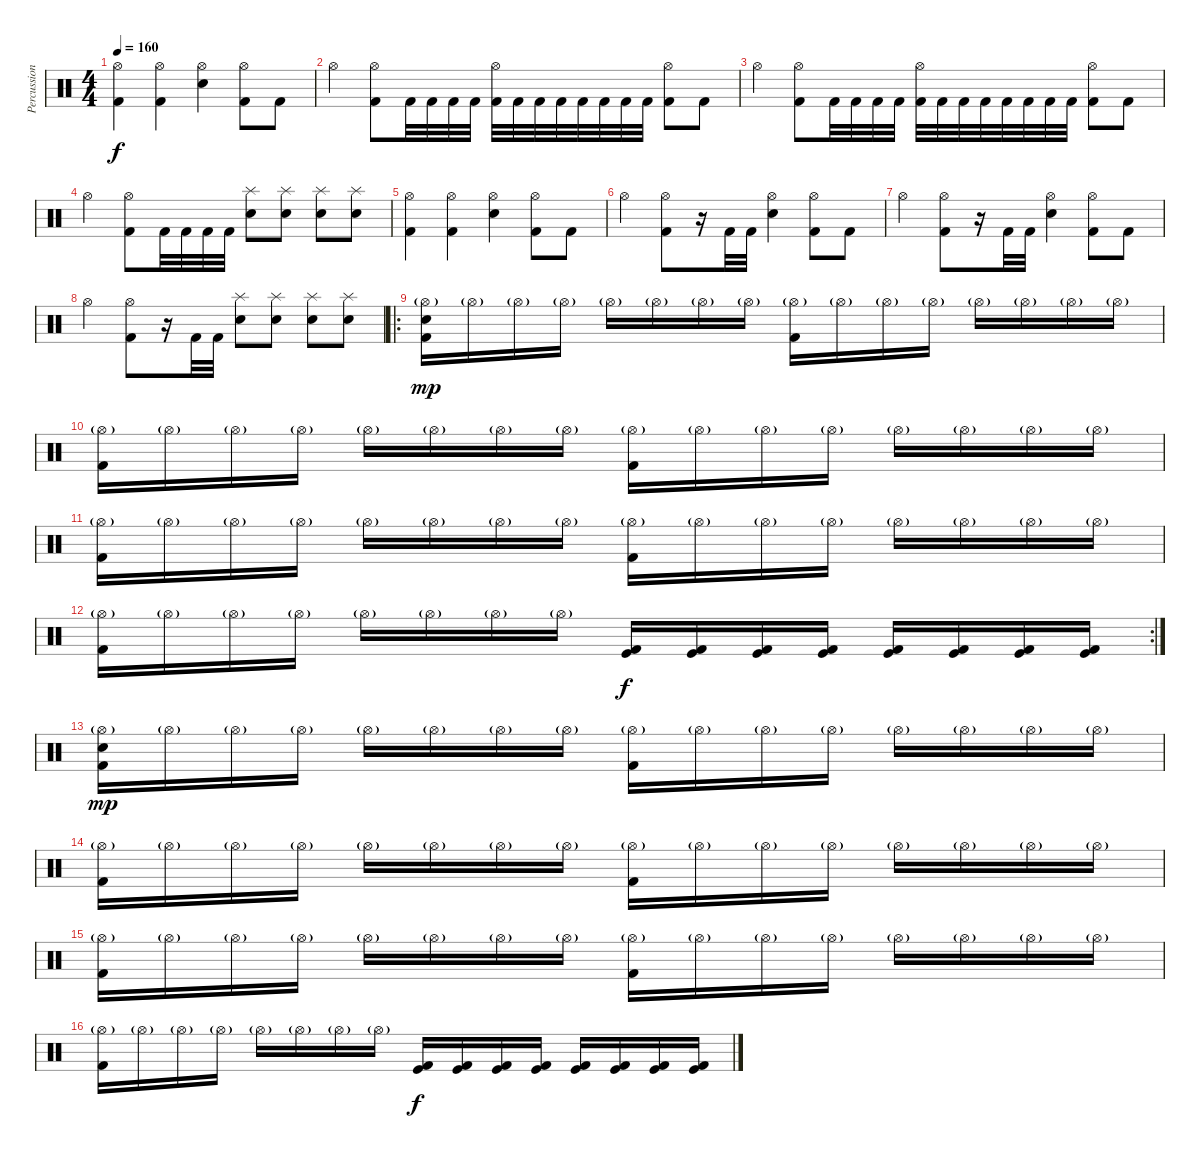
\track ("Percussion" "Percussion") {instrument percussion}
\staff {score}
\articulation defaults
\ts (4 4)
\tempo 160
\clef neutral
\ks c
("Kick (hit) 2" "Hi-Hat (open)").4{dy f} ("Kick (hit) 2" "Hi-Hat (open)").4 ("Electric Snare (hit)" "Hi-Hat (open)").4 ("Kick (hit) 2" "Hi-Hat (open)").8 "Kick (hit) 2".8 |
"Hi-Hat (open)".4 ("Kick (hit) 2" "Hi-Hat (open)").8 "Kick (hit) 2".32 "Kick (hit) 2".32 "Kick (hit) 2".32 "Kick (hit) 2".32 ("Kick (hit) 2" "Hi-Hat (open)").32 "Kick (hit) 2".32 "Kick (hit) 2".32 "Kick (hit) 2".32 "Kick (hit) 2".32 "Kick (hit) 2".32 "Kick (hit) 2".32 "Kick (hit) 2".32 ("Kick (hit) 2" "Hi-Hat (open)").8 "Kick (hit) 2".8 |
"Hi-Hat (open)".4 ("Kick (hit) 2" "Hi-Hat (open)").8 "Kick (hit) 2".32 "Kick (hit) 2".32 "Kick (hit) 2".32 "Kick (hit) 2".32 ("Kick (hit) 2" "Hi-Hat (open)").32 "Kick (hit) 2".32 "Kick (hit) 2".32 "Kick (hit) 2".32 "Kick (hit) 2".32 "Kick (hit) 2".32 "Kick (hit) 2".32 "Kick (hit) 2".32 ("Kick (hit) 2" "Hi-Hat (open)").8 "Kick (hit) 2".8 |
"Hi-Hat (open)".4 ("Kick (hit) 2" "Hi-Hat (open)").8 "Kick (hit) 2".32 "Kick (hit) 2".32 "Kick (hit) 2".32 "Kick (hit) 2".32 ("Electric Snare (hit)" "Splash (hit)").8 ("Electric Snare (hit)" "Splash (hit)").8 ("Electric Snare (hit)" "Splash (hit)").8 ("Electric Snare (hit)" "Splash (hit)").8 |
("Kick (hit) 2" "Hi-Hat (open)").4 ("Kick (hit) 2" "Hi-Hat (open)").4 ("Electric Snare (hit)" "Hi-Hat (open)").4 ("Kick (hit) 2" "Hi-Hat (open)").8 "Kick (hit) 2".8 |
"Hi-Hat (open)".4 ("Kick (hit) 2" "Hi-Hat (open)").8 r.16 "Kick (hit) 2".32 "Kick (hit) 2".32 ("Electric Snare (hit)" "Hi-Hat (open)").4 ("Kick (hit) 2" "Hi-Hat (open)").8 "Kick (hit) 2".8 |
"Hi-Hat (open)".4 ("Kick (hit) 2" "Hi-Hat (open)").8 r.16 "Kick (hit) 2".32 "Kick (hit) 2".32 ("Electric Snare (hit)" "Hi-Hat (open)").4 ("Kick (hit) 2" "Hi-Hat (open)").8 "Kick (hit) 2".8 |
"Hi-Hat (open)".4 ("Kick (hit) 2" "Hi-Hat (open)").8 r.16 "Kick (hit) 2".32 "Kick (hit) 2".32 ("Electric Snare (hit)" "Splash (hit)").8 ("Electric Snare (hit)" "Splash (hit)").8 ("Electric Snare (hit)" "Splash (hit)").8 ("Electric Snare (hit)" "Splash (hit)").8 |
\ro
("Hi-Hat (open)"{g} "Kick (hit) 2" "Electric Snare (hit)").16{dy mp} "Hi-Hat (open)"{g}.16 "Hi-Hat (open)"{g}.16 "Hi-Hat (open)"{g}.16 "Hi-Hat (open)"{g}.16 "Hi-Hat (open)"{g}.16 "Hi-Hat (open)"{g}.16 "Hi-Hat (open)"{g}.16 ("Hi-Hat (open)"{g} "Kick (hit) 2").16 "Hi-Hat (open)"{g}.16 "Hi-Hat (open)"{g}.16 "Hi-Hat (open)"{g}.16 "Hi-Hat (open)"{g}.16 "Hi-Hat (open)"{g}.16 "Hi-Hat (open)"{g}.16 "Hi-Hat (open)"{g}.16 |
("Hi-Hat (open)"{g} "Kick (hit) 2").16 "Hi-Hat (open)"{g}.16 "Hi-Hat (open)"{g}.16 "Hi-Hat (open)"{g}.16 "Hi-Hat (open)"{g}.16 "Hi-Hat (open)"{g}.16 "Hi-Hat (open)"{g}.16 "Hi-Hat (open)"{g}.16 ("Hi-Hat (open)"{g} "Kick (hit) 2").16 "Hi-Hat (open)"{g}.16 "Hi-Hat (open)"{g}.16 "Hi-Hat (open)"{g}.16 "Hi-Hat (open)"{g}.16 "Hi-Hat (open)"{g}.16 "Hi-Hat (open)"{g}.16 "Hi-Hat (open)"{g}.16 |
("Hi-Hat (open)"{g} "Kick (hit) 2").16 "Hi-Hat (open)"{g}.16 "Hi-Hat (open)"{g}.16 "Hi-Hat (open)"{g}.16 "Hi-Hat (open)"{g}.16 "Hi-Hat (open)"{g}.16 "Hi-Hat (open)"{g}.16 "Hi-Hat (open)"{g}.16 ("Hi-Hat (open)"{g} "Kick (hit) 2").16 "Hi-Hat (open)"{g}.16 "Hi-Hat (open)"{g}.16 "Hi-Hat (open)"{g}.16 "Hi-Hat (open)"{g}.16 "Hi-Hat (open)"{g}.16 "Hi-Hat (open)"{g}.16 "Hi-Hat (open)"{g}.16 |
\rc 2
("Hi-Hat (open)"{g} "Kick (hit) 2").16 "Hi-Hat (open)"{g}.16 "Hi-Hat (open)"{g}.16 "Hi-Hat (open)"{g}.16 "Hi-Hat (open)"{g}.16 "Hi-Hat (open)"{g}.16 "Hi-Hat (open)"{g}.16 "Hi-Hat (open)"{g}.16 ("Kick (hit) 2" "Kick (hit)").16{dy f} ("Kick (hit) 2" "Kick (hit)").16 ("Kick (hit) 2" "Kick (hit)").16 ("Kick (hit) 2" "Kick (hit)").16 ("Kick (hit) 2" "Kick (hit)").16 ("Kick (hit) 2" "Kick (hit)").16 ("Kick (hit) 2" "Kick (hit)").16 ("Kick (hit) 2" "Kick (hit)").16 |
("Hi-Hat (open)"{g} "Kick (hit) 2" "Electric Snare (hit)").16{dy mp} "Hi-Hat (open)"{g}.16 "Hi-Hat (open)"{g}.16 "Hi-Hat (open)"{g}.16 "Hi-Hat (open)"{g}.16 "Hi-Hat (open)"{g}.16 "Hi-Hat (open)"{g}.16 "Hi-Hat (open)"{g}.16 ("Hi-Hat (open)"{g} "Kick (hit) 2").16 "Hi-Hat (open)"{g}.16 "Hi-Hat (open)"{g}.16 "Hi-Hat (open)"{g}.16 "Hi-Hat (open)"{g}.16 "Hi-Hat (open)"{g}.16 "Hi-Hat (open)"{g}.16 "Hi-Hat (open)"{g}.16 |
("Hi-Hat (open)"{g} "Kick (hit) 2").16 "Hi-Hat (open)"{g}.16 "Hi-Hat (open)"{g}.16 "Hi-Hat (open)"{g}.16 "Hi-Hat (open)"{g}.16 "Hi-Hat (open)"{g}.16 "Hi-Hat (open)"{g}.16 "Hi-Hat (open)"{g}.16 ("Hi-Hat (open)"{g} "Kick (hit) 2").16 "Hi-Hat (open)"{g}.16 "Hi-Hat (open)"{g}.16 "Hi-Hat (open)"{g}.16 "Hi-Hat (open)"{g}.16 "Hi-Hat (open)"{g}.16 "Hi-Hat (open)"{g}.16 "Hi-Hat (open)"{g}.16 |
("Hi-Hat (open)"{g} "Kick (hit) 2").16 "Hi-Hat (open)"{g}.16 "Hi-Hat (open)"{g}.16 "Hi-Hat (open)"{g}.16 "Hi-Hat (open)"{g}.16 "Hi-Hat (open)"{g}.16 "Hi-Hat (open)"{g}.16 "Hi-Hat (open)"{g}.16 ("Hi-Hat (open)"{g} "Kick (hit) 2").16 "Hi-Hat (open)"{g}.16 "Hi-Hat (open)"{g}.16 "Hi-Hat (open)"{g}.16 "Hi-Hat (open)"{g}.16 "Hi-Hat (open)"{g}.16 "Hi-Hat (open)"{g}.16 "Hi-Hat (open)"{g}.16 |
("Hi-Hat (open)"{g} "Kick (hit) 2").16 "Hi-Hat (open)"{g}.16 "Hi-Hat (open)"{g}.16 "Hi-Hat (open)"{g}.16 "Hi-Hat (open)"{g}.16 "Hi-Hat (open)"{g}.16 "Hi-Hat (open)"{g}.16 "Hi-Hat (open)"{g}.16 ("Kick (hit) 2" "Kick (hit)").16{dy f} ("Kick (hit) 2" "Kick (hit)").16 ("Kick (hit) 2" "Kick (hit)").16 ("Kick (hit) 2" "Kick (hit)").16 ("Kick (hit) 2" "Kick (hit)").16 ("Kick (hit) 2" "Kick (hit)").16 ("Kick (hit) 2" "Kick (hit)").16 ("Kick (hit) 2" "Kick (hit)").16
